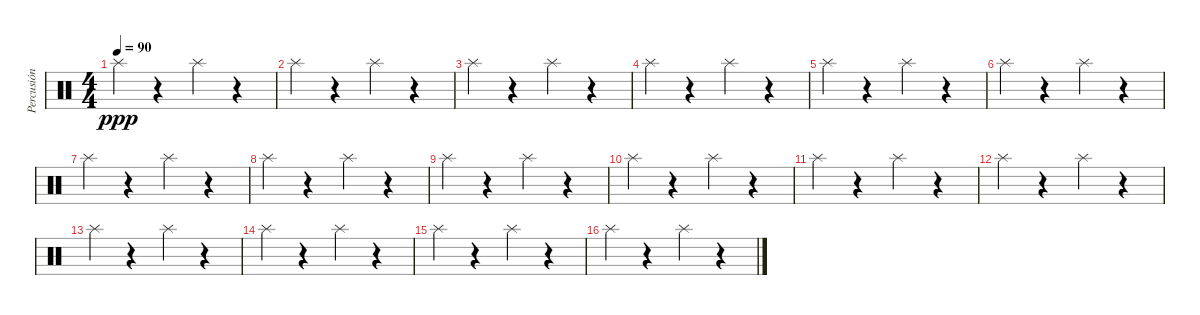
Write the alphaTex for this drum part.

\track ("Percusión" "Percusión") {instrument percussion}
\staff {score}
\articulation defaults
\ts (4 4)
\tempo 90
\clef neutral
\ks c "Splash (hit)".4{dy ppp}
r.4 "Splash (hit)".4 r.4 |
"Splash (hit)".4 r.4 "Splash (hit)".4 r.4 |
"Splash (hit)".4 r.4 "Splash (hit)".4 r.4 |
"Splash (hit)".4 r.4 "Splash (hit)".4 r.4 |
"Splash (hit)".4 r.4 "Splash (hit)".4 r.4 |
"Splash (hit)".4 r.4 "Splash (hit)".4 r.4 |
"Splash (hit)".4 r.4 "Splash (hit)".4 r.4 |
"Splash (hit)".4 r.4 "Splash (hit)".4 r.4 |
"Splash (hit)".4 r.4 "Splash (hit)".4 r.4 |
"Splash (hit)".4 r.4 "Splash (hit)".4 r.4 |
"Splash (hit)".4 r.4 "Splash (hit)".4 r.4 |
"Splash (hit)".4 r.4 "Splash (hit)".4 r.4 |
"Splash (hit)".4 r.4 "Splash (hit)".4 r.4 |
"Splash (hit)".4 r.4 "Splash (hit)".4 r.4 |
"Splash (hit)".4 r.4 "Splash (hit)".4 r.4 |
"Splash (hit)".4 r.4 "Splash (hit)".4 r.4
